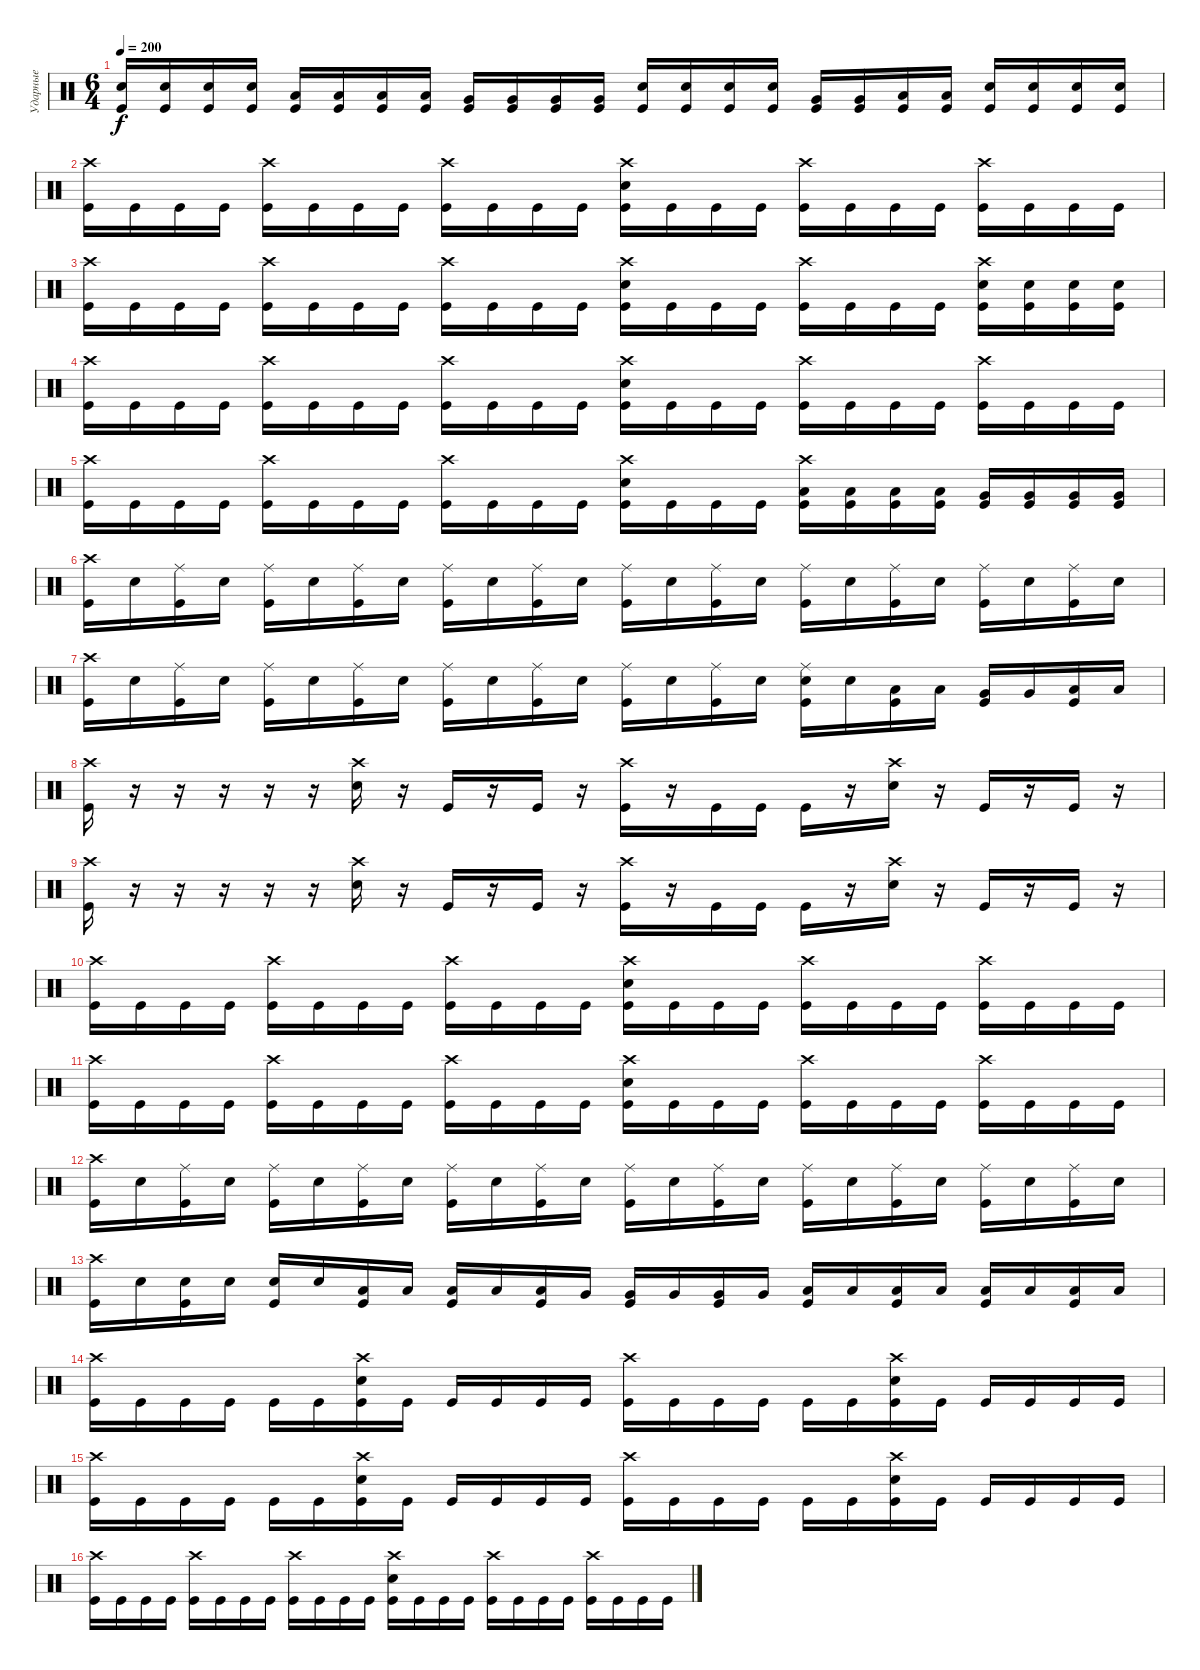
\track ("Ударные" "Ударные") {instrument percussion}
\staff {score}
\articulation defaults
\ts (6 4)
\tempo 200
\clef neutral
\ks c
("Snare (hit) 2" "Kick (hit)").16{dy f} ("Snare (hit) 2" "Kick (hit)").16 ("Snare (hit) 2" "Kick (hit)").16 ("Snare (hit) 2" "Kick (hit)").16 ("Low Tom (hit)" "Kick (hit)").16 ("Low Tom (hit)" "Kick (hit)").16 ("Low Tom (hit)" "Kick (hit)").16 ("Low Tom (hit)" "Kick (hit)").16 ("Very Low Tom (hit)" "Kick (hit)").16 ("Very Low Tom (hit)" "Kick (hit)").16 ("Very Low Tom (hit)" "Kick (hit)").16 ("Very Low Tom (hit)" "Kick (hit)").16 ("Snare (hit) 2" "Kick (hit)").16 ("Snare (hit) 2" "Kick (hit)").16 ("Snare (hit) 2" "Kick (hit)").16 ("Snare (hit) 2" "Kick (hit)").16 ("Very Low Tom (hit)" "Kick (hit)").16 ("Very Low Tom (hit)" "Kick (hit)").16 ("Low Floor Tom (hit)" "Kick (hit)").16 ("Low Floor Tom (hit)" "Kick (hit)").16 ("Snare (hit) 2" "Kick (hit)").16 ("Snare (hit) 2" "Kick (hit)").16 ("Snare (hit) 2" "Kick (hit)").16 ("Snare (hit) 2" "Kick (hit)").16 |
("Crash high (hit)" "Kick (hit)").16 "Kick (hit)".16 "Kick (hit)".16 "Kick (hit)".16 ("Crash high (hit)" "Kick (hit)").16 "Kick (hit)".16 "Kick (hit)".16 "Kick (hit)".16 ("Crash high (hit)" "Kick (hit)").16 "Kick (hit)".16 "Kick (hit)".16 "Kick (hit)".16 ("Crash high (hit)" "Snare (hit) 2" "Kick (hit)").16 "Kick (hit)".16 "Kick (hit)".16 "Kick (hit)".16 ("Crash high (hit)" "Kick (hit)").16 "Kick (hit)".16 "Kick (hit)".16 "Kick (hit)".16 ("Crash high (hit)" "Kick (hit)").16 "Kick (hit)".16 "Kick (hit)".16 "Kick (hit)".16 |
("Crash high (hit)" "Kick (hit)").16 "Kick (hit)".16 "Kick (hit)".16 "Kick (hit)".16 ("Crash high (hit)" "Kick (hit)").16 "Kick (hit)".16 "Kick (hit)".16 "Kick (hit)".16 ("Crash high (hit)" "Kick (hit)").16 "Kick (hit)".16 "Kick (hit)".16 "Kick (hit)".16 ("Crash high (hit)" "Snare (hit) 2" "Kick (hit)").16 "Kick (hit)".16 "Kick (hit)".16 "Kick (hit)".16 ("Crash high (hit)" "Kick (hit)").16 "Kick (hit)".16 "Kick (hit)".16 "Kick (hit)".16 ("Crash high (hit)" "Snare (hit) 2" "Kick (hit)").16 ("Snare (hit) 2" "Kick (hit)").16 ("Snare (hit) 2" "Kick (hit)").16 ("Snare (hit) 2" "Kick (hit)").16 |
("Crash high (hit)" "Kick (hit)").16 "Kick (hit)".16 "Kick (hit)".16 "Kick (hit)".16 ("Crash high (hit)" "Kick (hit)").16 "Kick (hit)".16 "Kick (hit)".16 "Kick (hit)".16 ("Crash high (hit)" "Kick (hit)").16 "Kick (hit)".16 "Kick (hit)".16 "Kick (hit)".16 ("Crash high (hit)" "Snare (hit) 2" "Kick (hit)").16 "Kick (hit)".16 "Kick (hit)".16 "Kick (hit)".16 ("Crash high (hit)" "Kick (hit)").16 "Kick (hit)".16 "Kick (hit)".16 "Kick (hit)".16 ("Crash high (hit)" "Kick (hit)").16 "Kick (hit)".16 "Kick (hit)".16 "Kick (hit)".16 |
("Crash high (hit)" "Kick (hit)").16 "Kick (hit)".16 "Kick (hit)".16 "Kick (hit)".16 ("Crash high (hit)" "Kick (hit)").16 "Kick (hit)".16 "Kick (hit)".16 "Kick (hit)".16 ("Crash high (hit)" "Kick (hit)").16 "Kick (hit)".16 "Kick (hit)".16 "Kick (hit)".16 ("Crash high (hit)" "Snare (hit) 2" "Kick (hit)").16 "Kick (hit)".16 "Kick (hit)".16 "Kick (hit)".16 ("Crash high (hit)" "Low Tom (hit)" "Kick (hit)").16 ("Low Tom (hit)" "Kick (hit)").16 ("Low Tom (hit)" "Kick (hit)").16 ("Low Tom (hit)" "Kick (hit)").16 ("Very Low Tom (hit)" "Kick (hit)").16 ("Very Low Tom (hit)" "Kick (hit)").16 ("Very Low Tom (hit)" "Kick (hit)").16 ("Very Low Tom (hit)" "Kick (hit)").16 |
("Crash high (hit)" "Kick (hit)").16 "Snare (hit) 2".16 ("Ride (middle)" "Kick (hit)").16 "Snare (hit) 2".16 ("Ride (middle)" "Kick (hit)").16 "Snare (hit) 2".16 ("Ride (middle)" "Kick (hit)").16 "Snare (hit) 2".16 ("Ride (middle)" "Kick (hit)").16 "Snare (hit) 2".16 ("Ride (middle)" "Kick (hit)").16 "Snare (hit) 2".16 ("Ride (middle)" "Kick (hit)").16 "Snare (hit) 2".16 ("Ride (middle)" "Kick (hit)").16 "Snare (hit) 2".16 ("Ride (middle)" "Kick (hit)").16 "Snare (hit) 2".16 ("Ride (middle)" "Kick (hit)").16 "Snare (hit) 2".16 ("Ride (middle)" "Kick (hit)").16 "Snare (hit) 2".16 ("Ride (middle)" "Kick (hit)").16 "Snare (hit) 2".16 |
("Crash high (hit)" "Kick (hit)").16 "Snare (hit) 2".16 ("Ride (middle)" "Kick (hit)").16 "Snare (hit) 2".16 ("Ride (middle)" "Kick (hit)").16 "Snare (hit) 2".16 ("Ride (middle)" "Kick (hit)").16 "Snare (hit) 2".16 ("Ride (middle)" "Kick (hit)").16 "Snare (hit) 2".16 ("Ride (middle)" "Kick (hit)").16 "Snare (hit) 2".16 ("Ride (middle)" "Kick (hit)").16 "Snare (hit) 2".16 ("Ride (middle)" "Kick (hit)").16 "Snare (hit) 2".16 ("Ride (middle)" "Snare (hit) 2" "Kick (hit)").16 "Snare (hit) 2".16 ("Low Tom (hit)" "Kick (hit)").16 "Low Tom (hit)".16 ("Very Low Tom (hit)" "Kick (hit)").16 "Very Low Tom (hit)".16 ("Low Floor Tom (hit)" "Kick (hit)").16 "Low Floor Tom (hit)".16 |
("Crash high (hit)" "Kick (hit)").16 r.16 r.16 r.16 r.16 r.16 ("Crash high (hit)" "Snare (hit) 2").16 r.16 "Kick (hit)".16 r.16 "Kick (hit)".16 r.16 ("Crash high (hit)" "Kick (hit)").16 r.16 "Kick (hit)".16 "Kick (hit)".16 "Kick (hit)".16 r.16 ("Crash high (hit)" "Snare (hit) 2").16 r.16 "Kick (hit)".16 r.16 "Kick (hit)".16 r.16 |
("Crash high (hit)" "Kick (hit)").16 r.16 r.16 r.16 r.16 r.16 ("Crash high (hit)" "Snare (hit) 2").16 r.16 "Kick (hit)".16 r.16 "Kick (hit)".16 r.16 ("Crash high (hit)" "Kick (hit)").16 r.16 "Kick (hit)".16 "Kick (hit)".16 "Kick (hit)".16 r.16 ("Crash high (hit)" "Snare (hit) 2").16 r.16 "Kick (hit)".16 r.16 "Kick (hit)".16 r.16 |
("Crash high (hit)" "Kick (hit)").16 "Kick (hit)".16 "Kick (hit)".16 "Kick (hit)".16 ("Crash high (hit)" "Kick (hit)").16 "Kick (hit)".16 "Kick (hit)".16 "Kick (hit)".16 ("Crash high (hit)" "Kick (hit)").16 "Kick (hit)".16 "Kick (hit)".16 "Kick (hit)".16 ("Crash high (hit)" "Snare (hit) 2" "Kick (hit)").16 "Kick (hit)".16 "Kick (hit)".16 "Kick (hit)".16 ("Crash high (hit)" "Kick (hit)").16 "Kick (hit)".16 "Kick (hit)".16 "Kick (hit)".16 ("Crash high (hit)" "Kick (hit)").16 "Kick (hit)".16 "Kick (hit)".16 "Kick (hit)".16 |
("Crash high (hit)" "Kick (hit)").16 "Kick (hit)".16 "Kick (hit)".16 "Kick (hit)".16 ("Crash high (hit)" "Kick (hit)").16 "Kick (hit)".16 "Kick (hit)".16 "Kick (hit)".16 ("Crash high (hit)" "Kick (hit)").16 "Kick (hit)".16 "Kick (hit)".16 "Kick (hit)".16 ("Crash high (hit)" "Snare (hit) 2" "Kick (hit)").16 "Kick (hit)".16 "Kick (hit)".16 "Kick (hit)".16 ("Crash high (hit)" "Kick (hit)").16 "Kick (hit)".16 "Kick (hit)".16 "Kick (hit)".16 ("Crash high (hit)" "Kick (hit)").16 "Kick (hit)".16 "Kick (hit)".16 "Kick (hit)".16 |
("Crash high (hit)" "Kick (hit)").16 "Snare (hit) 2".16 ("Ride (middle)" "Kick (hit)").16 "Snare (hit) 2".16 ("Ride (middle)" "Kick (hit)").16 "Snare (hit) 2".16 ("Ride (middle)" "Kick (hit)").16 "Snare (hit) 2".16 ("Ride (middle)" "Kick (hit)").16 "Snare (hit) 2".16 ("Ride (middle)" "Kick (hit)").16 "Snare (hit) 2".16 ("Ride (middle)" "Kick (hit)").16 "Snare (hit) 2".16 ("Ride (middle)" "Kick (hit)").16 "Snare (hit) 2".16 ("Ride (middle)" "Kick (hit)").16 "Snare (hit) 2".16 ("Ride (middle)" "Kick (hit)").16 "Snare (hit) 2".16 ("Ride (middle)" "Kick (hit)").16 "Snare (hit) 2".16 ("Ride (middle)" "Kick (hit)").16 "Snare (hit) 2".16 |
("Crash high (hit)" "Kick (hit)").16 "Snare (hit) 2".16 ("Snare (hit) 2" "Kick (hit)").16 "Snare (hit) 2".16 ("Snare (hit) 2" "Kick (hit)").16 "Snare (hit) 2".16 ("Low Tom (hit)" "Kick (hit)").16 "Low Tom (hit)".16 ("Low Tom (hit)" "Kick (hit)").16 "Low Tom (hit)".16 ("Low Tom (hit)" "Kick (hit)").16 "Very Low Tom (hit)".16 ("Very Low Tom (hit)" "Kick (hit)").16 "Very Low Tom (hit)".16 ("Very Low Tom (hit)" "Kick (hit)").16 "Very Low Tom (hit)".16 ("Low Floor Tom (hit)" "Kick (hit)").16 "Low Floor Tom (hit)".16 ("Low Floor Tom (hit)" "Kick (hit)").16 "Low Floor Tom (hit)".16 ("Low Floor Tom (hit)" "Kick (hit)").16 "Low Floor Tom (hit)".16 ("Low Floor Tom (hit)" "Kick (hit)").16 "Low Floor Tom (hit)".16 |
("Crash high (hit)" "Kick (hit)").16 "Kick (hit)".16 "Kick (hit)".16 "Kick (hit)".16 "Kick (hit)".16 "Kick (hit)".16 ("Crash high (hit)" "Snare (hit) 2" "Kick (hit)").16 "Kick (hit)".16 "Kick (hit)".16 "Kick (hit)".16 "Kick (hit)".16 "Kick (hit)".16 ("Crash high (hit)" "Kick (hit)").16 "Kick (hit)".16 "Kick (hit)".16 "Kick (hit)".16 "Kick (hit)".16 "Kick (hit)".16 ("Crash high (hit)" "Snare (hit) 2" "Kick (hit)").16 "Kick (hit)".16 "Kick (hit)".16 "Kick (hit)".16 "Kick (hit)".16 "Kick (hit)".16 |
("Crash high (hit)" "Kick (hit)").16 "Kick (hit)".16 "Kick (hit)".16 "Kick (hit)".16 "Kick (hit)".16 "Kick (hit)".16 ("Crash high (hit)" "Snare (hit) 2" "Kick (hit)").16 "Kick (hit)".16 "Kick (hit)".16 "Kick (hit)".16 "Kick (hit)".16 "Kick (hit)".16 ("Crash high (hit)" "Kick (hit)").16 "Kick (hit)".16 "Kick (hit)".16 "Kick (hit)".16 "Kick (hit)".16 "Kick (hit)".16 ("Crash high (hit)" "Snare (hit) 2" "Kick (hit)").16 "Kick (hit)".16 "Kick (hit)".16 "Kick (hit)".16 "Kick (hit)".16 "Kick (hit)".16 |
("Crash high (hit)" "Kick (hit)").16 "Kick (hit)".16 "Kick (hit)".16 "Kick (hit)".16 ("Crash high (hit)" "Kick (hit)").16 "Kick (hit)".16 "Kick (hit)".16 "Kick (hit)".16 ("Crash high (hit)" "Kick (hit)").16 "Kick (hit)".16 "Kick (hit)".16 "Kick (hit)".16 ("Crash high (hit)" "Snare (hit) 2" "Kick (hit)").16 "Kick (hit)".16 "Kick (hit)".16 "Kick (hit)".16 ("Crash high (hit)" "Kick (hit)").16 "Kick (hit)".16 "Kick (hit)".16 "Kick (hit)".16 ("Crash high (hit)" "Kick (hit)").16 "Kick (hit)".16 "Kick (hit)".16 "Kick (hit)".16
